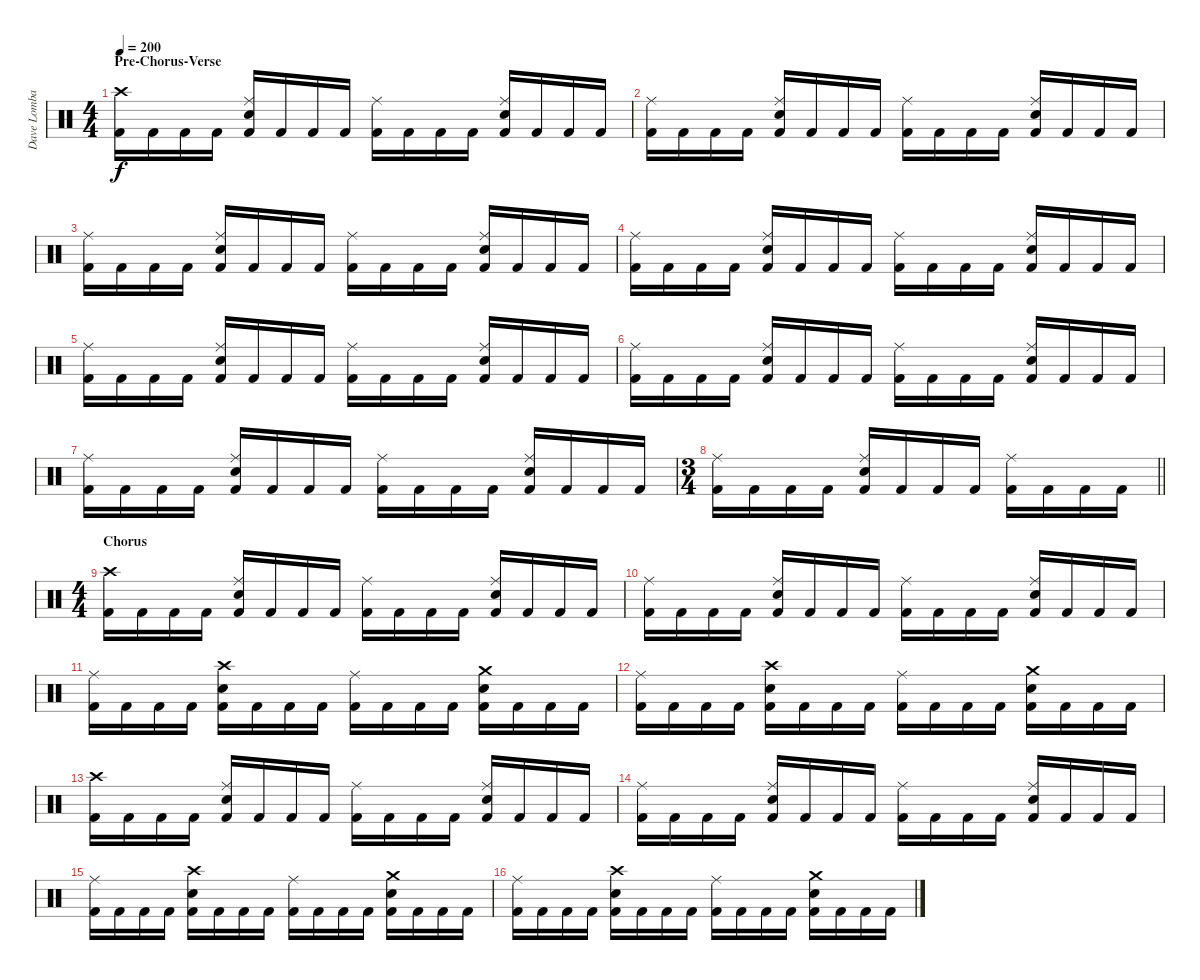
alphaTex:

\track ("Dave Lombardo (Drums)" "Dave Lomba") {instrument percussion}
\staff {score}
\articulation defaults
\ts (4 4)
\section ("" "Pre-Chorus-Verse")
\tempo 200
\clef neutral
\ks c
("Crash high (hit)" "Kick (hit) 2").16{dy f} "Kick (hit) 2".16 "Kick (hit) 2".16 "Kick (hit) 2".16 ("Ride (middle)" "Snare (hit) 2" "Kick (hit) 2").16 "Kick (hit) 2".16 "Kick (hit) 2".16 "Kick (hit) 2".16 ("Ride (middle)" "Kick (hit) 2").16 "Kick (hit) 2".16 "Kick (hit) 2".16 "Kick (hit) 2".16 ("Ride (middle)" "Snare (hit) 2" "Kick (hit) 2").16 "Kick (hit) 2".16 "Kick (hit) 2".16 "Kick (hit) 2".16 |
("Ride (middle)" "Kick (hit) 2").16 "Kick (hit) 2".16 "Kick (hit) 2".16 "Kick (hit) 2".16 ("Ride (middle)" "Snare (hit) 2" "Kick (hit) 2").16 "Kick (hit) 2".16 "Kick (hit) 2".16 "Kick (hit) 2".16 ("Ride (middle)" "Kick (hit) 2").16 "Kick (hit) 2".16 "Kick (hit) 2".16 "Kick (hit) 2".16 ("Ride (middle)" "Snare (hit) 2" "Kick (hit) 2").16 "Kick (hit) 2".16 "Kick (hit) 2".16 "Kick (hit) 2".16 |
("Ride (middle)" "Kick (hit) 2").16 "Kick (hit) 2".16 "Kick (hit) 2".16 "Kick (hit) 2".16 ("Ride (middle)" "Snare (hit) 2" "Kick (hit) 2").16 "Kick (hit) 2".16 "Kick (hit) 2".16 "Kick (hit) 2".16 ("Ride (middle)" "Kick (hit) 2").16 "Kick (hit) 2".16 "Kick (hit) 2".16 "Kick (hit) 2".16 ("Ride (middle)" "Snare (hit) 2" "Kick (hit) 2").16 "Kick (hit) 2".16 "Kick (hit) 2".16 "Kick (hit) 2".16 |
("Ride (middle)" "Kick (hit) 2").16 "Kick (hit) 2".16 "Kick (hit) 2".16 "Kick (hit) 2".16 ("Ride (middle)" "Snare (hit) 2" "Kick (hit) 2").16 "Kick (hit) 2".16 "Kick (hit) 2".16 "Kick (hit) 2".16 ("Ride (middle)" "Kick (hit) 2").16 "Kick (hit) 2".16 "Kick (hit) 2".16 "Kick (hit) 2".16 ("Ride (middle)" "Snare (hit) 2" "Kick (hit) 2").16 "Kick (hit) 2".16 "Kick (hit) 2".16 "Kick (hit) 2".16 |
("Ride (middle)" "Kick (hit) 2").16 "Kick (hit) 2".16 "Kick (hit) 2".16 "Kick (hit) 2".16 ("Ride (middle)" "Snare (hit) 2" "Kick (hit) 2").16 "Kick (hit) 2".16 "Kick (hit) 2".16 "Kick (hit) 2".16 ("Ride (middle)" "Kick (hit) 2").16 "Kick (hit) 2".16 "Kick (hit) 2".16 "Kick (hit) 2".16 ("Ride (middle)" "Snare (hit) 2" "Kick (hit) 2").16 "Kick (hit) 2".16 "Kick (hit) 2".16 "Kick (hit) 2".16 |
("Ride (middle)" "Kick (hit) 2").16 "Kick (hit) 2".16 "Kick (hit) 2".16 "Kick (hit) 2".16 ("Ride (middle)" "Snare (hit) 2" "Kick (hit) 2").16 "Kick (hit) 2".16 "Kick (hit) 2".16 "Kick (hit) 2".16 ("Ride (middle)" "Kick (hit) 2").16 "Kick (hit) 2".16 "Kick (hit) 2".16 "Kick (hit) 2".16 ("Ride (middle)" "Snare (hit) 2" "Kick (hit) 2").16 "Kick (hit) 2".16 "Kick (hit) 2".16 "Kick (hit) 2".16 |
("Ride (middle)" "Kick (hit) 2").16 "Kick (hit) 2".16 "Kick (hit) 2".16 "Kick (hit) 2".16 ("Ride (middle)" "Snare (hit) 2" "Kick (hit) 2").16 "Kick (hit) 2".16 "Kick (hit) 2".16 "Kick (hit) 2".16 ("Ride (middle)" "Kick (hit) 2").16 "Kick (hit) 2".16 "Kick (hit) 2".16 "Kick (hit) 2".16 ("Ride (middle)" "Snare (hit) 2" "Kick (hit) 2").16 "Kick (hit) 2".16 "Kick (hit) 2".16 "Kick (hit) 2".16 |
\ts (3 4)
\barLineRight lightlight
("Ride (middle)" "Kick (hit) 2").16 "Kick (hit) 2".16 "Kick (hit) 2".16 "Kick (hit) 2".16 ("Ride (middle)" "Snare (hit) 2" "Kick (hit) 2").16 "Kick (hit) 2".16 "Kick (hit) 2".16 "Kick (hit) 2".16 ("Ride (middle)" "Kick (hit) 2").16 "Kick (hit) 2".16 "Kick (hit) 2".16 "Kick (hit) 2".16 |
\ts (4 4)
\section ("" "Chorus")
("Crash high (hit)" "Kick (hit) 2").16 "Kick (hit) 2".16 "Kick (hit) 2".16 "Kick (hit) 2".16 ("Ride (middle)" "Snare (hit) 2" "Kick (hit) 2").16 "Kick (hit) 2".16 "Kick (hit) 2".16 "Kick (hit) 2".16 ("Ride (middle)" "Kick (hit) 2").16 "Kick (hit) 2".16 "Kick (hit) 2".16 "Kick (hit) 2".16 ("Ride (middle)" "Snare (hit) 2" "Kick (hit) 2").16 "Kick (hit) 2".16 "Kick (hit) 2".16 "Kick (hit) 2".16 |
("Ride (middle)" "Kick (hit) 2").16 "Kick (hit) 2".16 "Kick (hit) 2".16 "Kick (hit) 2".16 ("Ride (middle)" "Snare (hit) 2" "Kick (hit) 2").16 "Kick (hit) 2".16 "Kick (hit) 2".16 "Kick (hit) 2".16 ("Ride (middle)" "Kick (hit) 2").16 "Kick (hit) 2".16 "Kick (hit) 2".16 "Kick (hit) 2".16 ("Ride (middle)" "Snare (hit) 2" "Kick (hit) 2").16 "Kick (hit) 2".16 "Kick (hit) 2".16 "Kick (hit) 2".16 |
("Ride (middle)" "Kick (hit) 2").16 "Kick (hit) 2".16 "Kick (hit) 2".16 "Kick (hit) 2".16 ("Crash high (hit)" "Snare (hit) 2" "Kick (hit) 2").16 "Kick (hit) 2".16 "Kick (hit) 2".16 "Kick (hit) 2".16 ("Ride (middle)" "Kick (hit) 2").16 "Kick (hit) 2".16 "Kick (hit) 2".16 "Kick (hit) 2".16 ("Crash medium (hit)" "Snare (hit) 2" "Kick (hit) 2").16 "Kick (hit) 2".16 "Kick (hit) 2".16 "Kick (hit) 2".16 |
("Ride (middle)" "Kick (hit) 2").16 "Kick (hit) 2".16 "Kick (hit) 2".16 "Kick (hit) 2".16 ("Crash high (hit)" "Snare (hit) 2" "Kick (hit) 2").16 "Kick (hit) 2".16 "Kick (hit) 2".16 "Kick (hit) 2".16 ("Ride (middle)" "Kick (hit) 2").16 "Kick (hit) 2".16 "Kick (hit) 2".16 "Kick (hit) 2".16 ("Crash medium (hit)" "Snare (hit) 2" "Kick (hit) 2").16 "Kick (hit) 2".16 "Kick (hit) 2".16 "Kick (hit) 2".16 |
("Crash high (hit)" "Kick (hit) 2").16 "Kick (hit) 2".16 "Kick (hit) 2".16 "Kick (hit) 2".16 ("Ride (middle)" "Snare (hit) 2" "Kick (hit) 2").16 "Kick (hit) 2".16 "Kick (hit) 2".16 "Kick (hit) 2".16 ("Ride (middle)" "Kick (hit) 2").16 "Kick (hit) 2".16 "Kick (hit) 2".16 "Kick (hit) 2".16 ("Ride (middle)" "Snare (hit) 2" "Kick (hit) 2").16 "Kick (hit) 2".16 "Kick (hit) 2".16 "Kick (hit) 2".16 |
("Ride (middle)" "Kick (hit) 2").16 "Kick (hit) 2".16 "Kick (hit) 2".16 "Kick (hit) 2".16 ("Ride (middle)" "Snare (hit) 2" "Kick (hit) 2").16 "Kick (hit) 2".16 "Kick (hit) 2".16 "Kick (hit) 2".16 ("Ride (middle)" "Kick (hit) 2").16 "Kick (hit) 2".16 "Kick (hit) 2".16 "Kick (hit) 2".16 ("Ride (middle)" "Snare (hit) 2" "Kick (hit) 2").16 "Kick (hit) 2".16 "Kick (hit) 2".16 "Kick (hit) 2".16 |
("Ride (middle)" "Kick (hit) 2").16 "Kick (hit) 2".16 "Kick (hit) 2".16 "Kick (hit) 2".16 ("Crash high (hit)" "Snare (hit) 2" "Kick (hit) 2").16 "Kick (hit) 2".16 "Kick (hit) 2".16 "Kick (hit) 2".16 ("Ride (middle)" "Kick (hit) 2").16 "Kick (hit) 2".16 "Kick (hit) 2".16 "Kick (hit) 2".16 ("Crash medium (hit)" "Snare (hit) 2" "Kick (hit) 2").16 "Kick (hit) 2".16 "Kick (hit) 2".16 "Kick (hit) 2".16 |
("Ride (middle)" "Kick (hit) 2").16 "Kick (hit) 2".16 "Kick (hit) 2".16 "Kick (hit) 2".16 ("Crash high (hit)" "Snare (hit) 2" "Kick (hit) 2").16 "Kick (hit) 2".16 "Kick (hit) 2".16 "Kick (hit) 2".16 ("Ride (middle)" "Kick (hit) 2").16 "Kick (hit) 2".16 "Kick (hit) 2".16 "Kick (hit) 2".16 ("Crash medium (hit)" "Snare (hit) 2" "Kick (hit) 2").16 "Kick (hit) 2".16 "Kick (hit) 2".16 "Kick (hit) 2".16
